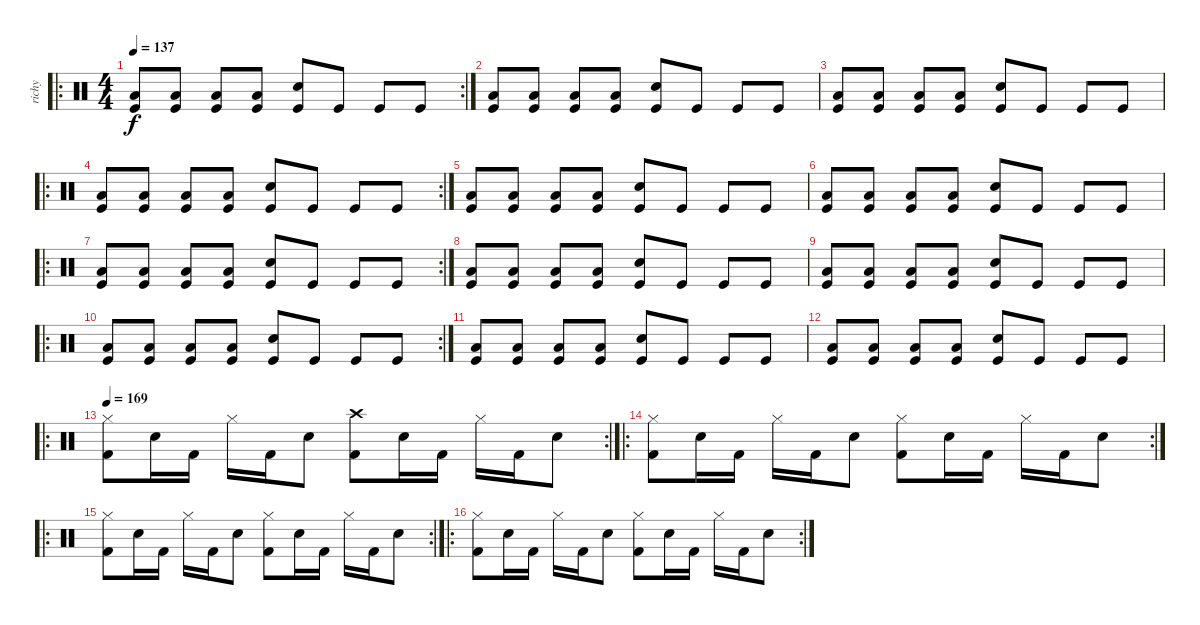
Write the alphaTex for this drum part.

\track ("richy" "richy") {instrument percussion}
\staff {score}
\articulation defaults
\ro
\rc 2
\ts (4 4)
\tempo 137
\clef neutral
\ks c
("Kick (hit)" "Low Tom (hit)").8{dy f} ("Kick (hit)" "Low Floor Tom (hit)").8 ("Kick (hit)" "Low Tom (hit)").8 ("Kick (hit)" "Low Floor Tom (hit)").8 ("Kick (hit)" "Snare (hit) 2").8 "Kick (hit)".8 "Kick (hit)".8 "Kick (hit)".8 |
("Kick (hit)" "Low Tom (hit)").8 ("Kick (hit)" "Low Floor Tom (hit)").8 ("Kick (hit)" "Low Tom (hit)").8 ("Kick (hit)" "Low Floor Tom (hit)").8 ("Kick (hit)" "Snare (hit) 2").8 "Kick (hit)".8 "Kick (hit)".8 "Kick (hit)".8 |
("Kick (hit)" "Low Tom (hit)").8 ("Kick (hit)" "Low Floor Tom (hit)").8 ("Kick (hit)" "Low Tom (hit)").8 ("Kick (hit)" "Low Floor Tom (hit)").8 ("Kick (hit)" "Snare (hit) 2").8 "Kick (hit)".8 "Kick (hit)".8 "Kick (hit)".8 |
\ro
\rc 2
("Kick (hit)" "Low Tom (hit)").8 ("Kick (hit)" "Low Floor Tom (hit)").8 ("Kick (hit)" "Low Tom (hit)").8 ("Kick (hit)" "Low Floor Tom (hit)").8 ("Kick (hit)" "Snare (hit) 2").8 "Kick (hit)".8 "Kick (hit)".8 "Kick (hit)".8 |
("Kick (hit)" "Low Tom (hit)").8 ("Kick (hit)" "Low Floor Tom (hit)").8 ("Kick (hit)" "Low Tom (hit)").8 ("Kick (hit)" "Low Floor Tom (hit)").8 ("Kick (hit)" "Snare (hit) 2").8 "Kick (hit)".8 "Kick (hit)".8 "Kick (hit)".8 |
("Kick (hit)" "Low Tom (hit)").8 ("Kick (hit)" "Low Floor Tom (hit)").8 ("Kick (hit)" "Low Tom (hit)").8 ("Kick (hit)" "Low Floor Tom (hit)").8 ("Kick (hit)" "Snare (hit) 2").8 "Kick (hit)".8 "Kick (hit)".8 "Kick (hit)".8 |
\ro
\rc 2
("Kick (hit)" "Low Tom (hit)").8 ("Kick (hit)" "Low Floor Tom (hit)").8 ("Kick (hit)" "Low Tom (hit)").8 ("Kick (hit)" "Low Floor Tom (hit)").8 ("Kick (hit)" "Snare (hit) 2").8 "Kick (hit)".8 "Kick (hit)".8 "Kick (hit)".8 |
("Kick (hit)" "Low Tom (hit)").8 ("Kick (hit)" "Low Floor Tom (hit)").8 ("Kick (hit)" "Low Tom (hit)").8 ("Kick (hit)" "Low Floor Tom (hit)").8 ("Kick (hit)" "Snare (hit) 2").8 "Kick (hit)".8 "Kick (hit)".8 "Kick (hit)".8 |
("Kick (hit)" "Low Tom (hit)").8 ("Kick (hit)" "Low Floor Tom (hit)").8 ("Kick (hit)" "Low Tom (hit)").8 ("Kick (hit)" "Low Floor Tom (hit)").8 ("Kick (hit)" "Snare (hit) 2").8 "Kick (hit)".8 "Kick (hit)".8 "Kick (hit)".8 |
\ro
\rc 2
("Kick (hit)" "Low Tom (hit)").8 ("Kick (hit)" "Low Floor Tom (hit)").8 ("Kick (hit)" "Low Tom (hit)").8 ("Kick (hit)" "Low Floor Tom (hit)").8 ("Kick (hit)" "Snare (hit) 2").8 "Kick (hit)".8 "Kick (hit)".8 "Kick (hit)".8 |
("Kick (hit)" "Low Tom (hit)").8 ("Kick (hit)" "Low Floor Tom (hit)").8 ("Kick (hit)" "Low Tom (hit)").8 ("Kick (hit)" "Low Floor Tom (hit)").8 ("Kick (hit)" "Snare (hit) 2").8 "Kick (hit)".8 "Kick (hit)".8 "Kick (hit)".8 |
("Kick (hit)" "Low Tom (hit)").8 ("Kick (hit)" "Low Floor Tom (hit)").8 ("Kick (hit)" "Low Tom (hit)").8 ("Kick (hit)" "Low Floor Tom (hit)").8 ("Kick (hit)" "Snare (hit) 2").8 "Kick (hit)".8 "Kick (hit)".8 "Kick (hit)".8 |
\ro
\rc 2
\tempo 169
("Hi-Hat (closed)" "Kick (hit) 2").8 "Snare (hit) 2".16 "Kick (hit) 2".16 "Hi-Hat (closed)".16 "Kick (hit) 2".16 "Snare (hit) 2".8 ("Crash high (hit)" "Kick (hit) 2").8 "Snare (hit) 2".16 "Kick (hit) 2".16 "Hi-Hat (closed)".16 "Kick (hit) 2".16 "Snare (hit) 2".8 |
\ro
\rc 2
("Hi-Hat (closed)" "Kick (hit) 2").8 "Snare (hit) 2".16 "Kick (hit) 2".16 "Hi-Hat (closed)".16 "Kick (hit) 2".16 "Snare (hit) 2".8 ("Hi-Hat (closed)" "Kick (hit) 2").8 "Snare (hit) 2".16 "Kick (hit) 2".16 "Hi-Hat (closed)".16 "Kick (hit) 2".16 "Snare (hit) 2".8 |
\ro
\rc 2
("Hi-Hat (closed)" "Kick (hit) 2").8 "Snare (hit) 2".16 "Kick (hit) 2".16 "Hi-Hat (closed)".16 "Kick (hit) 2".16 "Snare (hit) 2".8 ("Hi-Hat (closed)" "Kick (hit) 2").8 "Snare (hit) 2".16 "Kick (hit) 2".16 "Hi-Hat (closed)".16 "Kick (hit) 2".16 "Snare (hit) 2".8 |
\ro
\rc 2
("Hi-Hat (closed)" "Kick (hit) 2").8 "Snare (hit) 2".16 "Kick (hit) 2".16 "Hi-Hat (closed)".16 "Kick (hit) 2".16 "Snare (hit) 2".8 ("Hi-Hat (closed)" "Kick (hit) 2").8 "Snare (hit) 2".16 "Kick (hit) 2".16 "Hi-Hat (closed)".16 "Kick (hit) 2".16 "Snare (hit) 2".8
